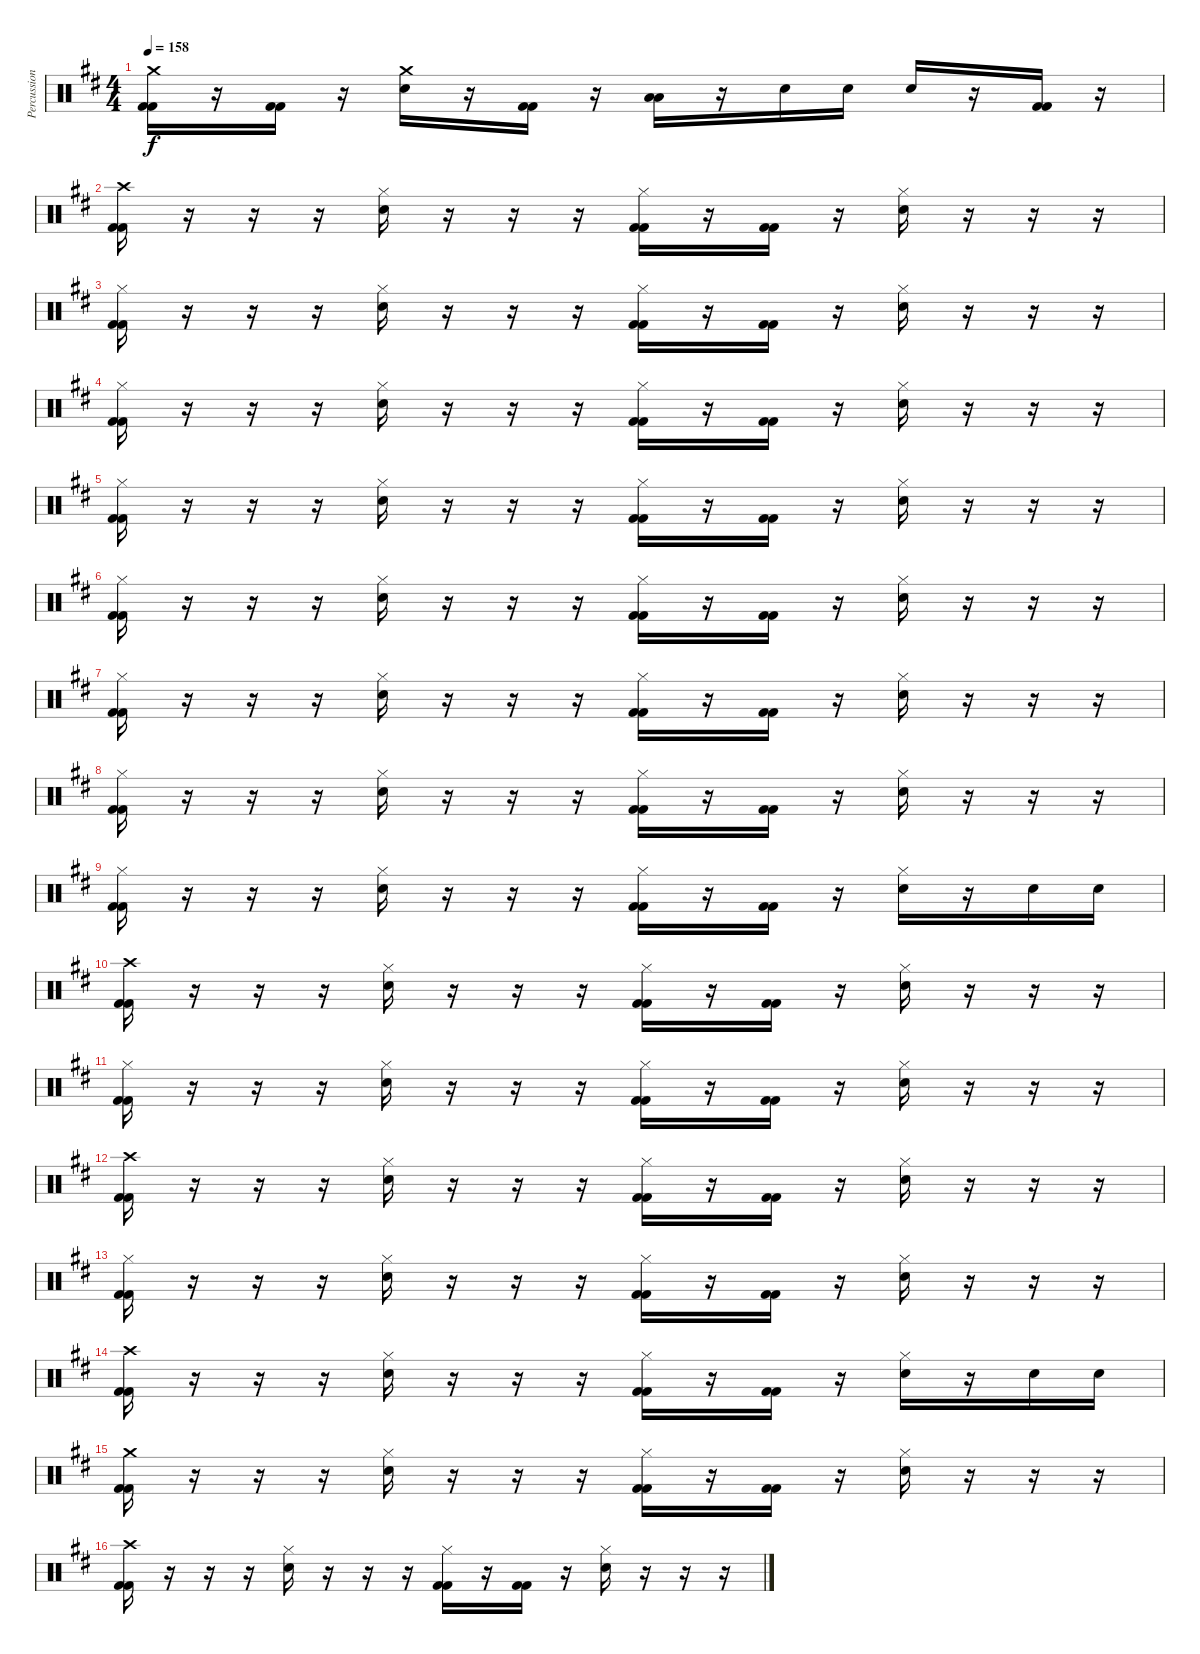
\track ("Percussion" "Percussion") {instrument percussion}
\staff {score}
\articulation defaults
\ts (4 4)
\tempo 158
\clef neutral
\ks d
("Crash medium (hit)" "Kick (hit) 2" "Kick (hit) 2").16{dy f} r.16 ("Kick (hit) 2" "Kick (hit) 2").16 r.16 ("Crash medium (hit)" "Electric Snare (hit)").16 r.16 ("Kick (hit) 2" "Kick (hit) 2").16 r.16 ("Low Tom (hit)" "Low Tom (hit)").16 r.16 "Electric Snare (hit)".16 "Electric Snare (hit)".16 "Electric Snare (hit)".16 r.16 ("Kick (hit) 2" "Kick (hit) 2").16 r.16 |
("Crash high (hit)" "Kick (hit) 2" "Kick (hit) 2").16 r.16 r.16 r.16 ("Hi-Hat (closed)" "Electric Snare (hit)").16 r.16 r.16 r.16 ("Hi-Hat (closed)" "Kick (hit) 2" "Kick (hit) 2").16 r.16 ("Kick (hit) 2" "Kick (hit) 2").16 r.16 ("Hi-Hat (closed)" "Electric Snare (hit)").16 r.16 r.16 r.16 |
("Hi-Hat (closed)" "Kick (hit) 2" "Kick (hit) 2").16 r.16 r.16 r.16 ("Hi-Hat (closed)" "Electric Snare (hit)").16 r.16 r.16 r.16 ("Hi-Hat (closed)" "Kick (hit) 2" "Kick (hit) 2").16 r.16 ("Kick (hit) 2" "Kick (hit) 2").16 r.16 ("Hi-Hat (closed)" "Electric Snare (hit)").16 r.16 r.16 r.16 |
("Hi-Hat (closed)" "Kick (hit) 2" "Kick (hit) 2").16 r.16 r.16 r.16 ("Hi-Hat (closed)" "Electric Snare (hit)").16 r.16 r.16 r.16 ("Hi-Hat (closed)" "Kick (hit) 2" "Kick (hit) 2").16 r.16 ("Kick (hit) 2" "Kick (hit) 2").16 r.16 ("Hi-Hat (closed)" "Electric Snare (hit)").16 r.16 r.16 r.16 |
("Hi-Hat (closed)" "Kick (hit) 2" "Kick (hit) 2").16 r.16 r.16 r.16 ("Hi-Hat (closed)" "Electric Snare (hit)").16 r.16 r.16 r.16 ("Hi-Hat (closed)" "Kick (hit) 2" "Kick (hit) 2").16 r.16 ("Kick (hit) 2" "Kick (hit) 2").16 r.16 ("Hi-Hat (closed)" "Electric Snare (hit)").16 r.16 r.16 r.16 |
("Hi-Hat (closed)" "Kick (hit) 2" "Kick (hit) 2").16 r.16 r.16 r.16 ("Hi-Hat (closed)" "Electric Snare (hit)").16 r.16 r.16 r.16 ("Hi-Hat (closed)" "Kick (hit) 2" "Kick (hit) 2").16 r.16 ("Kick (hit) 2" "Kick (hit) 2").16 r.16 ("Hi-Hat (closed)" "Electric Snare (hit)").16 r.16 r.16 r.16 |
("Hi-Hat (closed)" "Kick (hit) 2" "Kick (hit) 2").16 r.16 r.16 r.16 ("Hi-Hat (closed)" "Electric Snare (hit)").16 r.16 r.16 r.16 ("Hi-Hat (closed)" "Kick (hit) 2" "Kick (hit) 2").16 r.16 ("Kick (hit) 2" "Kick (hit) 2").16 r.16 ("Hi-Hat (closed)" "Electric Snare (hit)").16 r.16 r.16 r.16 |
("Hi-Hat (closed)" "Kick (hit) 2" "Kick (hit) 2").16 r.16 r.16 r.16 ("Hi-Hat (closed)" "Electric Snare (hit)").16 r.16 r.16 r.16 ("Hi-Hat (closed)" "Kick (hit) 2" "Kick (hit) 2").16 r.16 ("Kick (hit) 2" "Kick (hit) 2").16 r.16 ("Hi-Hat (closed)" "Electric Snare (hit)").16 r.16 r.16 r.16 |
("Hi-Hat (closed)" "Kick (hit) 2" "Kick (hit) 2").16 r.16 r.16 r.16 ("Hi-Hat (closed)" "Electric Snare (hit)").16 r.16 r.16 r.16 ("Hi-Hat (closed)" "Kick (hit) 2" "Kick (hit) 2").16 r.16 ("Kick (hit) 2" "Kick (hit) 2").16 r.16 ("Hi-Hat (closed)" "Electric Snare (hit)").16 r.16 "Electric Snare (hit)".16 "Electric Snare (hit)".16 |
("Crash high (hit)" "Kick (hit) 2" "Kick (hit) 2").16 r.16 r.16 r.16 ("Hi-Hat (closed)" "Electric Snare (hit)").16 r.16 r.16 r.16 ("Hi-Hat (closed)" "Kick (hit) 2" "Kick (hit) 2").16 r.16 ("Kick (hit) 2" "Kick (hit) 2").16 r.16 ("Hi-Hat (closed)" "Electric Snare (hit)").16 r.16 r.16 r.16 |
("Hi-Hat (closed)" "Kick (hit) 2" "Kick (hit) 2").16 r.16 r.16 r.16 ("Hi-Hat (closed)" "Electric Snare (hit)").16 r.16 r.16 r.16 ("Hi-Hat (closed)" "Kick (hit) 2" "Kick (hit) 2").16 r.16 ("Kick (hit) 2" "Kick (hit) 2").16 r.16 ("Hi-Hat (closed)" "Electric Snare (hit)").16 r.16 r.16 r.16 |
("Crash high (hit)" "Kick (hit) 2" "Kick (hit) 2").16 r.16 r.16 r.16 ("Hi-Hat (closed)" "Electric Snare (hit)").16 r.16 r.16 r.16 ("Hi-Hat (closed)" "Kick (hit) 2" "Kick (hit) 2").16 r.16 ("Kick (hit) 2" "Kick (hit) 2").16 r.16 ("Hi-Hat (closed)" "Electric Snare (hit)").16 r.16 r.16 r.16 |
("Hi-Hat (closed)" "Kick (hit) 2" "Kick (hit) 2").16 r.16 r.16 r.16 ("Hi-Hat (closed)" "Electric Snare (hit)").16 r.16 r.16 r.16 ("Hi-Hat (closed)" "Kick (hit) 2" "Kick (hit) 2").16 r.16 ("Kick (hit) 2" "Kick (hit) 2").16 r.16 ("Hi-Hat (closed)" "Electric Snare (hit)").16 r.16 r.16 r.16 |
("Crash high (hit)" "Kick (hit) 2" "Kick (hit) 2").16 r.16 r.16 r.16 ("Hi-Hat (closed)" "Electric Snare (hit)").16 r.16 r.16 r.16 ("Hi-Hat (closed)" "Kick (hit) 2" "Kick (hit) 2").16 r.16 ("Kick (hit) 2" "Kick (hit) 2").16 r.16 ("Hi-Hat (closed)" "Electric Snare (hit)").16 r.16 "Electric Snare (hit)".16 "Electric Snare (hit)".16 |
("Crash medium (hit)" "Kick (hit) 2" "Kick (hit) 2").16 r.16 r.16 r.16 ("Hi-Hat (closed)" "Electric Snare (hit)").16 r.16 r.16 r.16 ("Hi-Hat (closed)" "Kick (hit) 2" "Kick (hit) 2").16 r.16 ("Kick (hit) 2" "Kick (hit) 2").16 r.16 ("Hi-Hat (closed)" "Electric Snare (hit)").16 r.16 r.16 r.16 |
("Crash high (hit)" "Kick (hit) 2" "Kick (hit) 2").16 r.16 r.16 r.16 ("Hi-Hat (closed)" "Electric Snare (hit)").16 r.16 r.16 r.16 ("Hi-Hat (closed)" "Kick (hit) 2" "Kick (hit) 2").16 r.16 ("Kick (hit) 2" "Kick (hit) 2").16 r.16 ("Hi-Hat (closed)" "Electric Snare (hit)").16 r.16 r.16 r.16
